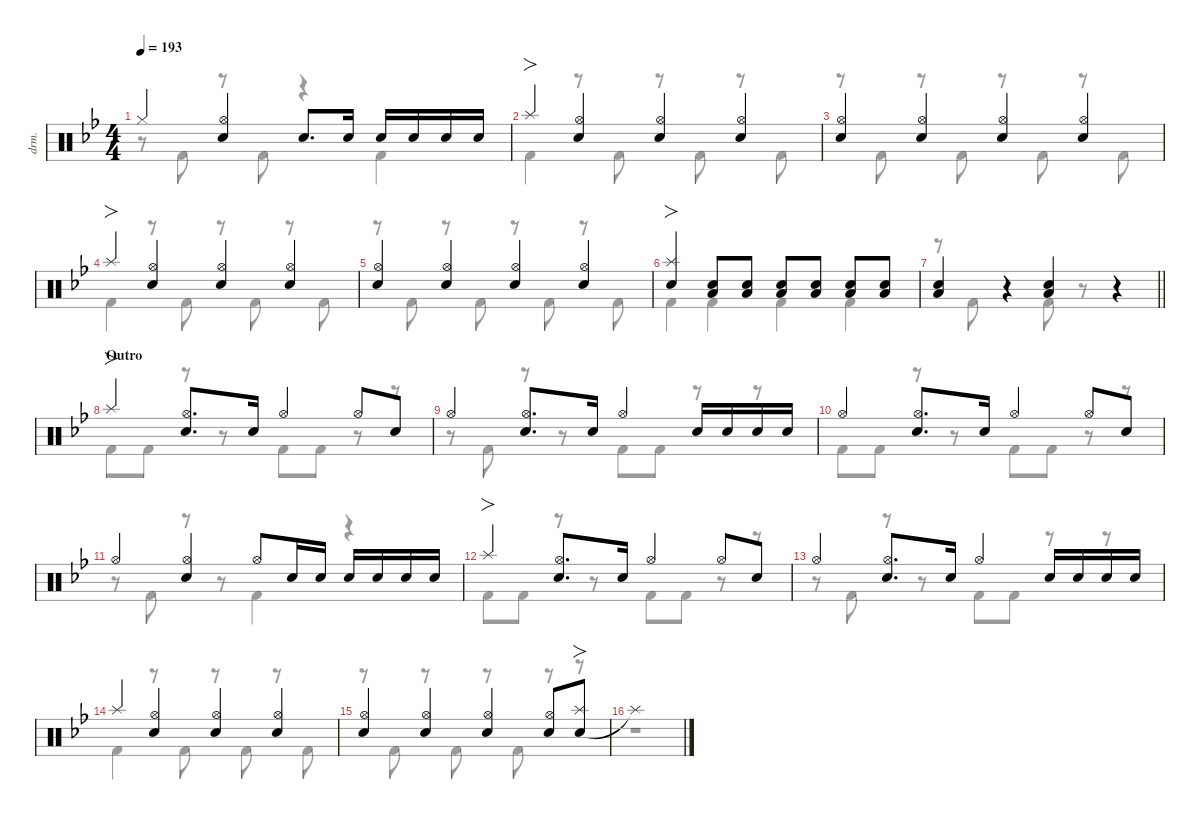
\defaultSystemsLayout 4
\hideDynamics
\bracketExtendMode nobrackets
\otherSystemsTrackNameOrientation horizontal
\track ("伊地知虹夏" "drm.") {instrument percussion}
\staff {score}
\articulation defaults
\voice
\ts (4 4)
\tempo 193
\clef neutral
\ks bb "Hi-Hat (closed)"{t acc forcenatural}.4{dy mf beam Up}
("Hi-Hat (open)"{acc forcenatural} "Snare (hit) 2"{acc forcenatural}).4{beam Up} "Snare (hit) 2"{acc forcenatural}.8{d beam Up} "Snare (hit) 2"{acc forcenatural}.16{beam Up} "Snare (hit) 2"{acc forcenatural}.16{beam Up} "Snare (hit) 2"{acc forcenatural}.16{beam Up} "Snare (hit) 2"{acc forcenatural}.16{beam Up} "Snare (hit) 2"{acc forcenatural}.16{beam Up} |
"Splash (hit)"{acc forcenatural}.4{fo beam Up} ("Hi-Hat (open)"{acc forcenatural} "Snare (hit) 2"{acc forcenatural}).4{beam Up} ("Hi-Hat (open)"{acc forcenatural} "Snare (hit) 2"{acc forcenatural}).4{beam Up} ("Hi-Hat (open)"{acc forcenatural} "Snare (hit) 2"{acc forcenatural}).4{beam Up} |
("Hi-Hat (open)"{acc forcenatural} "Snare (hit) 2"{acc forcenatural}).4{beam Up} ("Hi-Hat (open)"{acc forcenatural} "Snare (hit) 2"{acc forcenatural}).4{beam Up} ("Hi-Hat (open)"{acc forcenatural} "Snare (hit) 2"{acc forcenatural}).4{beam Up} ("Hi-Hat (open)"{acc forcenatural} "Snare (hit) 2"{acc forcenatural}).4{beam Up} |
"Splash (hit)"{acc forcenatural}.4{fo beam Up} ("Hi-Hat (open)"{acc forcenatural} "Snare (hit) 2"{acc forcenatural}).4{beam Up} ("Hi-Hat (open)"{acc forcenatural} "Snare (hit) 2"{acc forcenatural}).4{beam Up} ("Hi-Hat (open)"{acc forcenatural} "Snare (hit) 2"{acc forcenatural}).4{beam Up} |
("Hi-Hat (open)"{acc forcenatural} "Snare (hit) 2"{acc forcenatural}).4{beam Up} ("Hi-Hat (open)"{acc forcenatural} "Snare (hit) 2"{acc forcenatural}).4{beam Up} ("Hi-Hat (open)"{acc forcenatural} "Snare (hit) 2"{acc forcenatural}).4{beam Up} ("Hi-Hat (open)"{acc forcenatural} "Snare (hit) 2"{acc forcenatural}).4{beam Up} |
("Snare (hit) 2"{acc forcenatural} "Splash (hit)"{acc forcenatural}).4{fo beam Up} ("Snare (hit) 2"{acc forcenatural} "Low Tom (hit)"{acc forcenatural}).8{beam Up} ("Snare (hit) 2"{acc forcenatural} "Low Tom (hit)"{acc forcenatural}).8{beam Up} ("Snare (hit) 2"{acc forcenatural} "Low Tom (hit)"{acc forcenatural}).8{beam Up} ("Snare (hit) 2"{acc forcenatural} "Low Tom (hit)"{acc forcenatural}).8{beam Up} ("Snare (hit) 2"{acc forcenatural} "Low Tom (hit)"{acc forcenatural}).8{beam Up} ("Snare (hit) 2"{acc forcenatural} "Low Tom (hit)"{acc forcenatural}).8{beam Up} |
\barLineRight lightlight
("Snare (hit) 2"{acc forcenatural} "Low Tom (hit)"{acc forcenatural}).4{beam Up} r.4{beam Up} ("Snare (hit) 2"{acc forcenatural} "Low Tom (hit)"{acc forcenatural}).4{beam Up} r.4{beam Up} |
\section ("" "Outro")
"Splash (hit)"{acc forcenatural}.4{fo beam Up} ("Snare (hit) 2"{acc forcenatural} "Hi-Hat (open)"{acc forcenatural}).8{d beam Up} "Snare (hit) 2"{acc forcenatural}.16{beam Up} "Hi-Hat (open)"{acc forcenatural}.4{beam Up} "Hi-Hat (open)"{acc forcenatural}.8{beam Up} "Snare (hit) 2"{acc forcenatural}.8{beam Up} |
"Hi-Hat (open)"{acc forcenatural}.4{beam Up} ("Hi-Hat (open)"{acc forcenatural} "Snare (hit) 2"{acc forcenatural}).8{d beam Up} "Snare (hit) 2"{acc forcenatural}.16{beam Up} "Hi-Hat (open)"{acc forcenatural}.4{beam Up} "Snare (hit) 2"{acc forcenatural}.16{beam Up} "Snare (hit) 2"{acc forcenatural}.16{beam Up} "Snare (hit) 2"{acc forcenatural}.16{beam Up} "Snare (hit) 2"{acc forcenatural}.16{beam Up} |
"Hi-Hat (open)"{acc forcenatural}.4{beam Up} ("Hi-Hat (open)"{acc forcenatural} "Snare (hit) 2"{acc forcenatural}).8{d beam Up} "Snare (hit) 2"{acc forcenatural}.16{beam Up} "Hi-Hat (open)"{acc forcenatural}.4{beam Up} "Hi-Hat (open)"{acc forcenatural}.8{beam Up} "Snare (hit) 2"{acc forcenatural}.8{beam Up} |
"Hi-Hat (open)"{acc forcenatural}.4{beam Up} ("Hi-Hat (open)"{acc forcenatural} "Snare (hit) 2"{acc forcenatural}).4{beam Up} "Hi-Hat (open)"{acc forcenatural}.8{beam Up} "Snare (hit) 2"{acc forcenatural}.16{beam Up} "Snare (hit) 2"{acc forcenatural}.16{beam Up} "Snare (hit) 2"{acc forcenatural}.16{beam Up} "Snare (hit) 2"{acc forcenatural}.16{beam Up} "Snare (hit) 2"{acc forcenatural}.16{beam Up} "Snare (hit) 2"{acc forcenatural}.16{beam Up} |
"Splash (hit)"{acc forcenatural}.4{fo beam Up} ("Snare (hit) 2"{acc forcenatural} "Hi-Hat (open)"{acc forcenatural}).8{d beam Up} "Snare (hit) 2"{acc forcenatural}.16{beam Up} "Hi-Hat (open)"{acc forcenatural}.4{beam Up} "Hi-Hat (open)"{acc forcenatural}.8{beam Up} "Snare (hit) 2"{acc forcenatural}.8{beam Up} |
"Hi-Hat (open)"{acc forcenatural}.4{beam Up} ("Hi-Hat (open)"{acc forcenatural} "Snare (hit) 2"{acc forcenatural}).8{d beam Up} "Snare (hit) 2"{acc forcenatural}.16{beam Up} "Hi-Hat (open)"{acc forcenatural}.4{beam Up} "Snare (hit) 2"{acc forcenatural}.16{beam Up} "Snare (hit) 2"{acc forcenatural}.16{beam Up} "Snare (hit) 2"{acc forcenatural}.16{beam Up} "Snare (hit) 2"{acc forcenatural}.16{beam Up} |
"Splash (hit)"{acc forcenatural}.4{beam Up} ("Hi-Hat (open)"{acc forcenatural} "Snare (hit) 2"{acc forcenatural}).4{beam Up} ("Hi-Hat (open)"{acc forcenatural} "Snare (hit) 2"{acc forcenatural}).4{beam Up} ("Hi-Hat (open)"{acc forcenatural} "Snare (hit) 2"{acc forcenatural}).4{beam Up} |
("Hi-Hat (open)"{acc forcenatural} "Snare (hit) 2"{acc forcenatural}).4{beam Up} ("Hi-Hat (open)"{acc forcenatural} "Snare (hit) 2"{acc forcenatural}).4{beam Up} ("Hi-Hat (open)"{acc forcenatural} "Snare (hit) 2"{acc forcenatural}).4{beam Up} ("Hi-Hat (open)"{acc forcenatural} "Snare (hit) 2"{acc forcenatural}).8{beam Up} ("Snare (hit) 2"{acc forcenatural} "Splash (hit)"{acc forcenatural}).8{fo beam Up} |
"Splash (hit)"{t acc forcenatural}.1{beam Up}
\voice
\clef neutral
\ottava regular
\simile none
\ks bb
r.8{dy mf beam Down} "Kick (hit) 2"{acc forcenatural}.8{beam Down} r.8{beam Down} "Kick (hit) 2"{acc forcenatural}.8{beam Down} r.4{beam Down} "Kick (hit) 2"{acc forcenatural}.4{beam Down} |
"Kick (hit) 2"{acc forcenatural}.4{beam Down} r.8{beam Down} "Kick (hit) 2"{acc forcenatural}.8{beam Down} r.8{beam Down} "Kick (hit) 2"{acc forcenatural}.8{beam Down} r.8{beam Down} "Kick (hit) 2"{acc forcenatural}.8{beam Down} |
r.8{beam Down} "Kick (hit) 2"{acc forcenatural}.8{beam Down} r.8{beam Down} "Kick (hit) 2"{acc forcenatural}.8{beam Down} r.8{beam Down} "Kick (hit) 2"{acc forcenatural}.8{beam Down} r.8{beam Down} "Kick (hit) 2"{acc forcenatural}.8{beam Down} |
"Kick (hit) 2"{acc forcenatural}.4{beam Down} r.8{beam Down} "Kick (hit) 2"{acc forcenatural}.8{beam Down} r.8{beam Down} "Kick (hit) 2"{acc forcenatural}.8{beam Down} r.8{beam Down} "Kick (hit) 2"{acc forcenatural}.8{beam Down} |
r.8{beam Down} "Kick (hit) 2"{acc forcenatural}.8{beam Down} r.8{beam Down} "Kick (hit) 2"{acc forcenatural}.8{beam Down} r.8{beam Down} "Kick (hit) 2"{acc forcenatural}.8{beam Down} r.8{beam Down} "Kick (hit) 2"{acc forcenatural}.8{beam Down} |
"Kick (hit) 2"{acc forcenatural}.4{beam Down} "Kick (hit) 2"{acc forcenatural}.4{beam Down} "Kick (hit) 2"{acc forcenatural}.4{beam Down} "Kick (hit) 2"{acc forcenatural}.4{beam Down} |
\barLineRight lightlight
r.8{beam Down} "Kick (hit) 2"{acc forcenatural}.8{beam Down} r.4{beam Down} "Kick (hit) 2"{acc forcenatural}.8{beam Down} r.8{beam Down} r.4{beam Down} |
"Kick (hit) 2"{acc forcenatural}.8{beam Down} "Kick (hit) 2"{acc forcenatural}.8{beam Down} r.8{beam Down} r.8{beam Down} "Kick (hit) 2"{acc forcenatural}.8{beam Down} "Kick (hit) 2"{acc forcenatural}.8{beam Down} r.8{beam Down} r.8{beam Down} |
r.8{beam Down} "Kick (hit) 2"{acc forcenatural}.8{beam Down} r.8{beam Down} r.8{beam Down} "Kick (hit) 2"{acc forcenatural}.8{beam Down} "Kick (hit) 2"{acc forcenatural}.8{beam Down} r.8{beam Down} r.8{beam Down} |
"Kick (hit) 2"{acc forcenatural}.8{beam Down} "Kick (hit) 2"{acc forcenatural}.8{beam Down} r.8{beam Down} r.8{beam Down} "Kick (hit) 2"{acc forcenatural}.8{beam Down} "Kick (hit) 2"{acc forcenatural}.8{beam Down} r.8{beam Down} r.8{beam Down} |
r.8{beam Down} "Kick (hit) 2"{acc forcenatural}.8{beam Down} r.8{beam Down} r.8{beam Down} "Kick (hit) 2"{acc forcenatural}.4{beam Down} r.4{beam Down} |
"Kick (hit) 2"{acc forcenatural}.8{beam Down} "Kick (hit) 2"{acc forcenatural}.8{beam Down} r.8{beam Down} r.8{beam Down} "Kick (hit) 2"{acc forcenatural}.8{beam Down} "Kick (hit) 2"{acc forcenatural}.8{beam Down} r.8{beam Down} r.8{beam Down} |
r.8{beam Down} "Kick (hit) 2"{acc forcenatural}.8{beam Down} r.8{beam Down} r.8{beam Down} "Kick (hit) 2"{acc forcenatural}.8{beam Down} "Kick (hit) 2"{acc forcenatural}.8{beam Down} r.8{beam Down} r.8{beam Down} |
"Kick (hit) 2"{acc forcenatural}.4{beam Down} r.8{beam Down} "Kick (hit) 2"{acc forcenatural}.8{beam Down} r.8{beam Down} "Kick (hit) 2"{acc forcenatural}.8{beam Down} r.8{beam Down} "Kick (hit) 2"{acc forcenatural}.8{beam Down} |
r.8{beam Down} "Kick (hit) 2"{acc forcenatural}.8{beam Down} r.8{beam Down} "Kick (hit) 2"{acc forcenatural}.8{beam Down} r.8{beam Down} "Kick (hit) 2"{acc forcenatural}.8{beam Down} r.8{beam Down} r.8{beam Down} |
r.1{beam Down}
